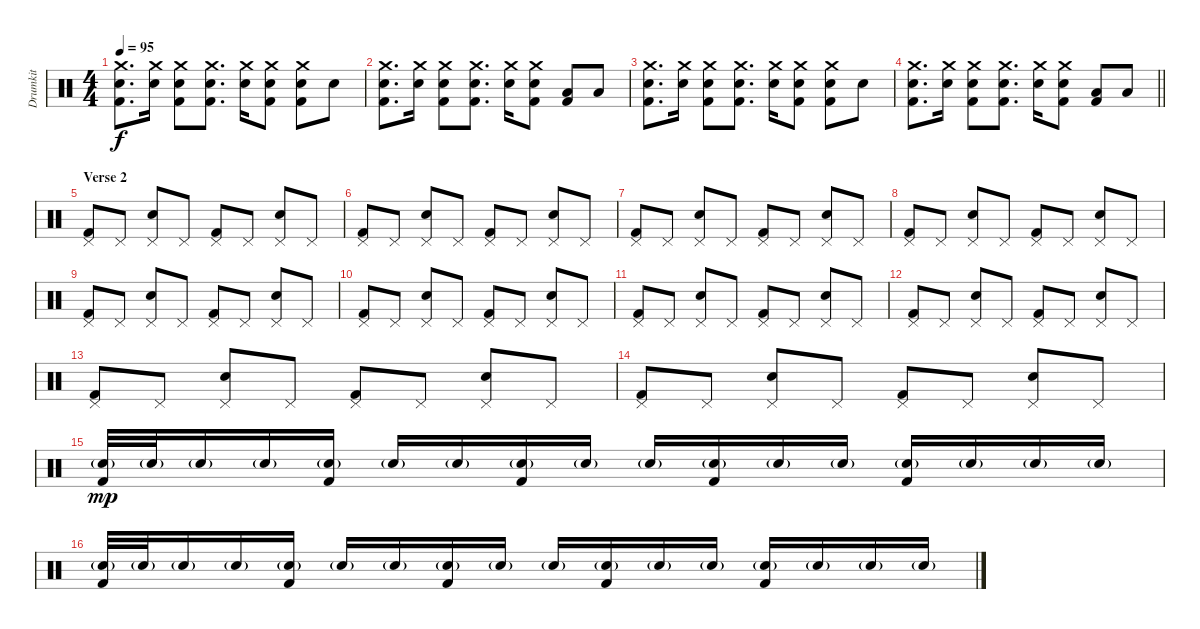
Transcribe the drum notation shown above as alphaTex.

\track ("Drumkit" "Drumkit") {instrument percussion}
\staff {score}
\articulation defaults
\ts (4 4)
\tempo 95
\clef neutral
\ks c
("Crash medium (hit)" "Snare (hit) 2" "Kick (hit) 2").8{d dy f} ("Crash medium (hit)" "Snare (hit) 2").16 ("Crash medium (hit)" "Snare (hit) 2" "Kick (hit) 2").8 ("Crash medium (hit)" "Snare (hit) 2" "Kick (hit) 2").8{d} ("Crash medium (hit)" "Snare (hit) 2").16 ("Crash medium (hit)" "Snare (hit) 2" "Kick (hit) 2").8 ("Crash medium (hit)" "Snare (hit) 2" "Kick (hit) 2").8 "Snare (hit) 2".8 |
("Crash medium (hit)" "Snare (hit) 2" "Kick (hit) 2").8{d} ("Crash medium (hit)" "Snare (hit) 2").16 ("Crash medium (hit)" "Snare (hit) 2" "Kick (hit) 2").8 ("Crash medium (hit)" "Snare (hit) 2" "Kick (hit) 2").8{d} ("Crash medium (hit)" "Snare (hit) 2").16 ("Crash medium (hit)" "Snare (hit) 2" "Kick (hit) 2").8 ("Low Tom (hit)" "Kick (hit) 2").8 "Low Floor Tom (hit)".8 |
("Crash medium (hit)" "Snare (hit) 2" "Kick (hit) 2").8{d} ("Crash medium (hit)" "Snare (hit) 2").16 ("Crash medium (hit)" "Snare (hit) 2" "Kick (hit) 2").8 ("Crash medium (hit)" "Snare (hit) 2" "Kick (hit) 2").8{d} ("Crash medium (hit)" "Snare (hit) 2").16 ("Crash medium (hit)" "Snare (hit) 2" "Kick (hit) 2").8 ("Crash medium (hit)" "Snare (hit) 2" "Kick (hit) 2").8 "Snare (hit) 2".8 |
\barLineRight lightlight
("Crash medium (hit)" "Snare (hit) 2" "Kick (hit) 2").8{d} ("Crash medium (hit)" "Snare (hit) 2").16 ("Crash medium (hit)" "Snare (hit) 2" "Kick (hit) 2").8 ("Crash medium (hit)" "Snare (hit) 2" "Kick (hit) 2").8{d} ("Crash medium (hit)" "Snare (hit) 2").16 ("Crash medium (hit)" "Snare (hit) 2" "Kick (hit) 2").8 ("Low Tom (hit)" "Kick (hit) 2").8 "Low Floor Tom (hit)".8 |
\section ("" "Verse 2")
("Pedal Hi-Hat (hit)" "Kick (hit) 2").8 "Pedal Hi-Hat (hit)".8 ("Pedal Hi-Hat (hit)" "Snare (hit) 2").8 "Pedal Hi-Hat (hit)".8 ("Pedal Hi-Hat (hit)" "Kick (hit) 2").8 "Pedal Hi-Hat (hit)".8 ("Pedal Hi-Hat (hit)" "Snare (hit) 2").8 "Pedal Hi-Hat (hit)".8 |
("Pedal Hi-Hat (hit)" "Kick (hit) 2").8 "Pedal Hi-Hat (hit)".8 ("Pedal Hi-Hat (hit)" "Snare (hit) 2").8 "Pedal Hi-Hat (hit)".8 ("Pedal Hi-Hat (hit)" "Kick (hit) 2").8 "Pedal Hi-Hat (hit)".8 ("Pedal Hi-Hat (hit)" "Snare (hit) 2").8 "Pedal Hi-Hat (hit)".8 |
("Pedal Hi-Hat (hit)" "Kick (hit) 2").8 "Pedal Hi-Hat (hit)".8 ("Pedal Hi-Hat (hit)" "Snare (hit) 2").8 "Pedal Hi-Hat (hit)".8 ("Pedal Hi-Hat (hit)" "Kick (hit) 2").8 "Pedal Hi-Hat (hit)".8 ("Pedal Hi-Hat (hit)" "Snare (hit) 2").8 "Pedal Hi-Hat (hit)".8 |
("Pedal Hi-Hat (hit)" "Kick (hit) 2").8 "Pedal Hi-Hat (hit)".8 ("Pedal Hi-Hat (hit)" "Snare (hit) 2").8 "Pedal Hi-Hat (hit)".8 ("Pedal Hi-Hat (hit)" "Kick (hit) 2").8 "Pedal Hi-Hat (hit)".8 ("Pedal Hi-Hat (hit)" "Snare (hit) 2").8 "Pedal Hi-Hat (hit)".8 |
("Pedal Hi-Hat (hit)" "Kick (hit) 2").8 "Pedal Hi-Hat (hit)".8 ("Pedal Hi-Hat (hit)" "Snare (hit) 2").8 "Pedal Hi-Hat (hit)".8 ("Pedal Hi-Hat (hit)" "Kick (hit) 2").8 "Pedal Hi-Hat (hit)".8 ("Pedal Hi-Hat (hit)" "Snare (hit) 2").8 "Pedal Hi-Hat (hit)".8 |
("Pedal Hi-Hat (hit)" "Kick (hit) 2").8 "Pedal Hi-Hat (hit)".8 ("Pedal Hi-Hat (hit)" "Snare (hit) 2").8 "Pedal Hi-Hat (hit)".8 ("Pedal Hi-Hat (hit)" "Kick (hit) 2").8 "Pedal Hi-Hat (hit)".8 ("Pedal Hi-Hat (hit)" "Snare (hit) 2").8 "Pedal Hi-Hat (hit)".8 |
("Pedal Hi-Hat (hit)" "Kick (hit) 2").8 "Pedal Hi-Hat (hit)".8 ("Pedal Hi-Hat (hit)" "Snare (hit) 2").8 "Pedal Hi-Hat (hit)".8 ("Pedal Hi-Hat (hit)" "Kick (hit) 2").8 "Pedal Hi-Hat (hit)".8 ("Pedal Hi-Hat (hit)" "Snare (hit) 2").8 "Pedal Hi-Hat (hit)".8 |
("Pedal Hi-Hat (hit)" "Kick (hit) 2").8 "Pedal Hi-Hat (hit)".8 ("Pedal Hi-Hat (hit)" "Snare (hit) 2").8 "Pedal Hi-Hat (hit)".8 ("Pedal Hi-Hat (hit)" "Kick (hit) 2").8 "Pedal Hi-Hat (hit)".8 ("Pedal Hi-Hat (hit)" "Snare (hit) 2").8 "Pedal Hi-Hat (hit)".8 |
("Pedal Hi-Hat (hit)" "Kick (hit) 2").8 "Pedal Hi-Hat (hit)".8 ("Pedal Hi-Hat (hit)" "Snare (hit) 2").8 "Pedal Hi-Hat (hit)".8 ("Pedal Hi-Hat (hit)" "Kick (hit) 2").8 "Pedal Hi-Hat (hit)".8 ("Pedal Hi-Hat (hit)" "Snare (hit) 2").8 "Pedal Hi-Hat (hit)".8 |
("Pedal Hi-Hat (hit)" "Kick (hit) 2").8 "Pedal Hi-Hat (hit)".8 ("Pedal Hi-Hat (hit)" "Snare (hit) 2").8 "Pedal Hi-Hat (hit)".8 ("Pedal Hi-Hat (hit)" "Kick (hit) 2").8 "Pedal Hi-Hat (hit)".8 ("Pedal Hi-Hat (hit)" "Snare (hit) 2").8 "Pedal Hi-Hat (hit)".8 |
("Snare (hit) 2"{g} "Kick (hit) 2").32{dy mp} "Snare (hit) 2"{g}.32 "Snare (hit) 2"{g}.16 "Snare (hit) 2"{g}.16 ("Snare (hit) 2"{g} "Kick (hit) 2").16 "Snare (hit) 2"{g}.16 "Snare (hit) 2"{g}.16 ("Snare (hit) 2"{g} "Kick (hit) 2").16 "Snare (hit) 2"{g}.16 "Snare (hit) 2"{g}.16 ("Snare (hit) 2"{g} "Kick (hit) 2").16 "Snare (hit) 2"{g}.16 "Snare (hit) 2"{g}.16 ("Snare (hit) 2"{g} "Kick (hit) 2").16 "Snare (hit) 2"{g}.16 "Snare (hit) 2"{g}.16 "Snare (hit) 2"{g}.16 |
("Snare (hit) 2"{g} "Kick (hit) 2").32 "Snare (hit) 2"{g}.32 "Snare (hit) 2"{g}.16 "Snare (hit) 2"{g}.16 ("Snare (hit) 2"{g} "Kick (hit) 2").16 "Snare (hit) 2"{g}.16 "Snare (hit) 2"{g}.16 ("Snare (hit) 2"{g} "Kick (hit) 2").16 "Snare (hit) 2"{g}.16 "Snare (hit) 2"{g}.16 ("Snare (hit) 2"{g} "Kick (hit) 2").16 "Snare (hit) 2"{g}.16 "Snare (hit) 2"{g}.16 ("Snare (hit) 2"{g} "Kick (hit) 2").16 "Snare (hit) 2"{g}.16 "Snare (hit) 2"{g}.16 "Snare (hit) 2"{g}.16
